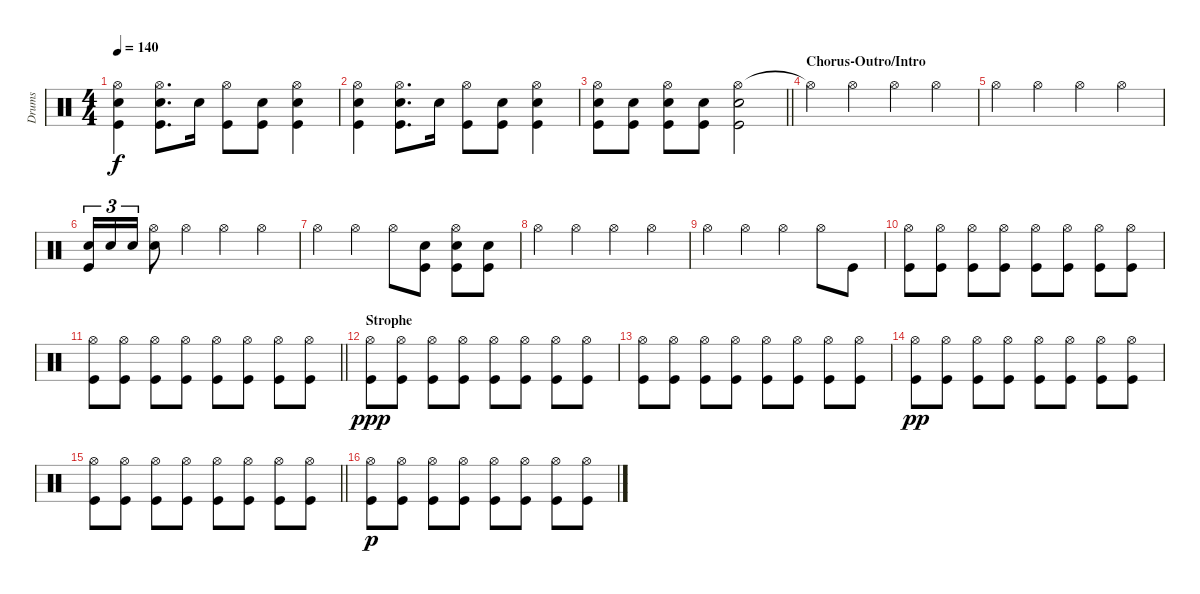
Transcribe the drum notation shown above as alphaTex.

\track ("Drums" "Drums") {instrument percussion}
\staff {score}
\articulation defaults
\ts (4 4)
\tempo 140
\clef neutral
\ks c
("Hi-Hat (open)" "Kick (hit)" "Snare (hit) 2").4{dy f} ("Hi-Hat (open)" "Kick (hit)" "Snare (hit) 2").8{d} "Snare (hit) 2".16 ("Hi-Hat (open)" "Kick (hit)").8 ("Kick (hit)" "Snare (hit) 2").8 ("Hi-Hat (open)" "Kick (hit)" "Snare (hit) 2").4 |
("Hi-Hat (open)" "Kick (hit)" "Snare (hit) 2").4 ("Hi-Hat (open)" "Kick (hit)" "Snare (hit) 2").8{d} "Snare (hit) 2".16 ("Hi-Hat (open)" "Kick (hit)").8 ("Kick (hit)" "Snare (hit) 2").8 ("Hi-Hat (open)" "Kick (hit)" "Snare (hit) 2").4 |
\barLineRight lightlight
("Hi-Hat (open)" "Kick (hit)" "Snare (hit) 2").8 ("Kick (hit)" "Snare (hit) 2").8 ("Hi-Hat (open)" "Kick (hit)" "Snare (hit) 2").8 ("Kick (hit)" "Snare (hit) 2").8 ("Hi-Hat (open)" "Kick (hit)" "Snare (hit) 2").2 |
\section ("" "Chorus-Outro/Intro")
"Hi-Hat (open)"{t}.4 "Hi-Hat (open)".4 "Hi-Hat (open)".4 "Hi-Hat (open)".4 |
"Hi-Hat (open)".4 "Hi-Hat (open)".4 "Hi-Hat (open)".4 "Hi-Hat (open)".4 |
("Snare (hit) 2" "Kick (hit)").16{tu (3 2)} "Snare (hit) 2".16{tu (3 2)} "Snare (hit) 2".16{tu (3 2)} ("Snare (hit) 2" "Hi-Hat (open)").8 "Hi-Hat (open)".4 "Hi-Hat (open)".4 "Hi-Hat (open)".4 |
"Hi-Hat (open)".4 "Hi-Hat (open)".4 "Hi-Hat (open)".8 ("Snare (hit) 2" "Kick (hit)").8 ("Hi-Hat (open)" "Snare (hit) 2" "Kick (hit)").8 ("Snare (hit) 2" "Kick (hit)").8 |
"Hi-Hat (open)".4 "Hi-Hat (open)".4 "Hi-Hat (open)".4 "Hi-Hat (open)".4 |
"Hi-Hat (open)".4 "Hi-Hat (open)".4 "Hi-Hat (open)".4 "Hi-Hat (open)".8 "Kick (hit)".8 |
("Hi-Hat (open)" "Kick (hit)").8 ("Hi-Hat (open)" "Kick (hit)").8 ("Hi-Hat (open)" "Kick (hit)").8 ("Hi-Hat (open)" "Kick (hit)").8 ("Hi-Hat (open)" "Kick (hit)").8 ("Hi-Hat (open)" "Kick (hit)").8 ("Hi-Hat (open)" "Kick (hit)").8 ("Hi-Hat (open)" "Kick (hit)").8 |
\barLineRight lightlight
("Hi-Hat (open)" "Kick (hit)").8 ("Hi-Hat (open)" "Kick (hit)").8 ("Hi-Hat (open)" "Kick (hit)").8 ("Hi-Hat (open)" "Kick (hit)").8 ("Hi-Hat (open)" "Kick (hit)").8 ("Hi-Hat (open)" "Kick (hit)").8 ("Hi-Hat (open)" "Kick (hit)").8 ("Hi-Hat (open)" "Kick (hit)").8 |
\section ("" "Strophe")
("Hi-Hat (open)" "Kick (hit)").8{dy ppp} ("Hi-Hat (open)" "Kick (hit)").8 ("Hi-Hat (open)" "Kick (hit)").8 ("Hi-Hat (open)" "Kick (hit)").8 ("Hi-Hat (open)" "Kick (hit)").8 ("Hi-Hat (open)" "Kick (hit)").8 ("Hi-Hat (open)" "Kick (hit)").8 ("Hi-Hat (open)" "Kick (hit)").8 |
("Hi-Hat (open)" "Kick (hit)").8 ("Hi-Hat (open)" "Kick (hit)").8 ("Hi-Hat (open)" "Kick (hit)").8 ("Hi-Hat (open)" "Kick (hit)").8 ("Hi-Hat (open)" "Kick (hit)").8 ("Hi-Hat (open)" "Kick (hit)").8 ("Hi-Hat (open)" "Kick (hit)").8 ("Hi-Hat (open)" "Kick (hit)").8 |
("Hi-Hat (open)" "Kick (hit)").8{dy pp} ("Hi-Hat (open)" "Kick (hit)").8 ("Hi-Hat (open)" "Kick (hit)").8 ("Hi-Hat (open)" "Kick (hit)").8 ("Hi-Hat (open)" "Kick (hit)").8 ("Hi-Hat (open)" "Kick (hit)").8 ("Hi-Hat (open)" "Kick (hit)").8 ("Hi-Hat (open)" "Kick (hit)").8 |
\barLineRight lightlight
("Hi-Hat (open)" "Kick (hit)").8 ("Hi-Hat (open)" "Kick (hit)").8 ("Hi-Hat (open)" "Kick (hit)").8 ("Hi-Hat (open)" "Kick (hit)").8 ("Hi-Hat (open)" "Kick (hit)").8 ("Hi-Hat (open)" "Kick (hit)").8 ("Hi-Hat (open)" "Kick (hit)").8 ("Hi-Hat (open)" "Kick (hit)").8 |
("Hi-Hat (open)" "Kick (hit)").8{dy p} ("Hi-Hat (open)" "Kick (hit)").8 ("Hi-Hat (open)" "Kick (hit)").8 ("Hi-Hat (open)" "Kick (hit)").8 ("Hi-Hat (open)" "Kick (hit)").8 ("Hi-Hat (open)" "Kick (hit)").8 ("Hi-Hat (open)" "Kick (hit)").8 ("Hi-Hat (open)" "Kick (hit)").8
